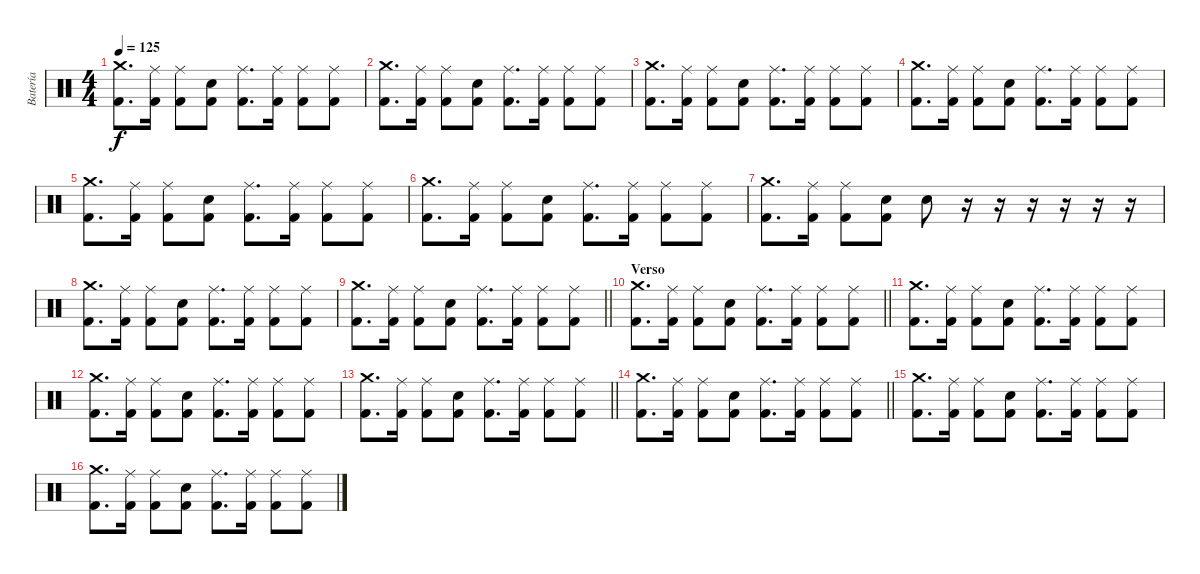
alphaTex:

\track ("Batería" "Batería") {instrument percussion}
\staff {score}
\articulation defaults
\ts (4 4)
\tempo 125
\clef neutral
\ks c
("Crash medium (hit)" "Kick (hit) 2").8{d dy f} ("Ride (middle)" "Kick (hit) 2").16 ("Ride (middle)" "Kick (hit) 2").8 ("Electric Snare (hit)" "Kick (hit) 2").8 ("Ride (middle)" "Kick (hit) 2").8{d} ("Ride (middle)" "Kick (hit) 2").16 ("Ride (middle)" "Kick (hit) 2").8 ("Ride (middle)" "Kick (hit) 2").8 |
("Crash medium (hit)" "Kick (hit) 2").8{d} ("Ride (middle)" "Kick (hit) 2").16 ("Ride (middle)" "Kick (hit) 2").8 ("Electric Snare (hit)" "Kick (hit) 2").8 ("Ride (middle)" "Kick (hit) 2").8{d} ("Ride (middle)" "Kick (hit) 2").16 ("Ride (middle)" "Kick (hit) 2").8 ("Ride (middle)" "Kick (hit) 2").8 |
("Crash medium (hit)" "Kick (hit) 2").8{d} ("Ride (middle)" "Kick (hit) 2").16 ("Ride (middle)" "Kick (hit) 2").8 ("Electric Snare (hit)" "Kick (hit) 2").8 ("Ride (middle)" "Kick (hit) 2").8{d} ("Ride (middle)" "Kick (hit) 2").16 ("Ride (middle)" "Kick (hit) 2").8 ("Ride (middle)" "Kick (hit) 2").8 |
("Crash medium (hit)" "Kick (hit) 2").8{d} ("Ride (middle)" "Kick (hit) 2").16 ("Ride (middle)" "Kick (hit) 2").8 ("Electric Snare (hit)" "Kick (hit) 2").8 ("Ride (middle)" "Kick (hit) 2").8{d} ("Ride (middle)" "Kick (hit) 2").16 ("Ride (middle)" "Kick (hit) 2").8 ("Ride (middle)" "Kick (hit) 2").8 |
("Crash medium (hit)" "Kick (hit) 2").8{d} ("Ride (middle)" "Kick (hit) 2").16 ("Ride (middle)" "Kick (hit) 2").8 ("Electric Snare (hit)" "Kick (hit) 2").8 ("Ride (middle)" "Kick (hit) 2").8{d} ("Ride (middle)" "Kick (hit) 2").16 ("Ride (middle)" "Kick (hit) 2").8 ("Ride (middle)" "Kick (hit) 2").8 |
("Crash medium (hit)" "Kick (hit) 2").8{d} ("Ride (middle)" "Kick (hit) 2").16 ("Ride (middle)" "Kick (hit) 2").8 ("Electric Snare (hit)" "Kick (hit) 2").8 ("Ride (middle)" "Kick (hit) 2").8{d} ("Ride (middle)" "Kick (hit) 2").16 ("Ride (middle)" "Kick (hit) 2").8 ("Ride (middle)" "Kick (hit) 2").8 |
("Crash medium (hit)" "Kick (hit) 2").8{d} ("Ride (middle)" "Kick (hit) 2").16 ("Ride (middle)" "Kick (hit) 2").8 ("Electric Snare (hit)" "Kick (hit) 2").8 "Snare (hit) 2".8 r.16 r.16 r.16 r.16 r.16 r.16 |
("Crash medium (hit)" "Kick (hit) 2").8{d} ("Ride (middle)" "Kick (hit) 2").16 ("Ride (middle)" "Kick (hit) 2").8 ("Electric Snare (hit)" "Kick (hit) 2").8 ("Ride (middle)" "Kick (hit) 2").8{d} ("Ride (middle)" "Kick (hit) 2").16 ("Ride (middle)" "Kick (hit) 2").8 ("Ride (middle)" "Kick (hit) 2").8 |
\barLineRight lightlight
("Crash medium (hit)" "Kick (hit) 2").8{d} ("Ride (middle)" "Kick (hit) 2").16 ("Ride (middle)" "Kick (hit) 2").8 ("Electric Snare (hit)" "Kick (hit) 2").8 ("Ride (middle)" "Kick (hit) 2").8{d} ("Ride (middle)" "Kick (hit) 2").16 ("Ride (middle)" "Kick (hit) 2").8 ("Ride (middle)" "Kick (hit) 2").8 |
\section ("" "Verso")
\barLineRight lightlight
("Crash medium (hit)" "Kick (hit) 2").8{d} ("Ride (middle)" "Kick (hit) 2").16 ("Ride (middle)" "Kick (hit) 2").8 ("Electric Snare (hit)" "Kick (hit) 2").8 ("Ride (middle)" "Kick (hit) 2").8{d} ("Ride (middle)" "Kick (hit) 2").16 ("Ride (middle)" "Kick (hit) 2").8 ("Ride (middle)" "Kick (hit) 2").8 |
("Crash medium (hit)" "Kick (hit) 2").8{d} ("Ride (middle)" "Kick (hit) 2").16 ("Ride (middle)" "Kick (hit) 2").8 ("Electric Snare (hit)" "Kick (hit) 2").8 ("Ride (middle)" "Kick (hit) 2").8{d} ("Ride (middle)" "Kick (hit) 2").16 ("Ride (middle)" "Kick (hit) 2").8 ("Ride (middle)" "Kick (hit) 2").8 |
("Crash medium (hit)" "Kick (hit) 2").8{d} ("Ride (middle)" "Kick (hit) 2").16 ("Ride (middle)" "Kick (hit) 2").8 ("Electric Snare (hit)" "Kick (hit) 2").8 ("Ride (middle)" "Kick (hit) 2").8{d} ("Ride (middle)" "Kick (hit) 2").16 ("Ride (middle)" "Kick (hit) 2").8 ("Ride (middle)" "Kick (hit) 2").8 |
\barLineRight lightlight
("Crash medium (hit)" "Kick (hit) 2").8{d} ("Ride (middle)" "Kick (hit) 2").16 ("Ride (middle)" "Kick (hit) 2").8 ("Electric Snare (hit)" "Kick (hit) 2").8 ("Ride (middle)" "Kick (hit) 2").8{d} ("Ride (middle)" "Kick (hit) 2").16 ("Ride (middle)" "Kick (hit) 2").8 ("Ride (middle)" "Kick (hit) 2").8 |
\barLineRight lightlight
("Crash medium (hit)" "Kick (hit) 2").8{d} ("Ride (middle)" "Kick (hit) 2").16 ("Ride (middle)" "Kick (hit) 2").8 ("Electric Snare (hit)" "Kick (hit) 2").8 ("Ride (middle)" "Kick (hit) 2").8{d} ("Ride (middle)" "Kick (hit) 2").16 ("Ride (middle)" "Kick (hit) 2").8 ("Ride (middle)" "Kick (hit) 2").8 |
("Crash medium (hit)" "Kick (hit) 2").8{d} ("Ride (middle)" "Kick (hit) 2").16 ("Ride (middle)" "Kick (hit) 2").8 ("Electric Snare (hit)" "Kick (hit) 2").8 ("Ride (middle)" "Kick (hit) 2").8{d} ("Ride (middle)" "Kick (hit) 2").16 ("Ride (middle)" "Kick (hit) 2").8 ("Ride (middle)" "Kick (hit) 2").8 |
("Crash medium (hit)" "Kick (hit) 2").8{d} ("Ride (middle)" "Kick (hit) 2").16 ("Ride (middle)" "Kick (hit) 2").8 ("Electric Snare (hit)" "Kick (hit) 2").8 ("Ride (middle)" "Kick (hit) 2").8{d} ("Ride (middle)" "Kick (hit) 2").16 ("Ride (middle)" "Kick (hit) 2").8 ("Ride (middle)" "Kick (hit) 2").8
